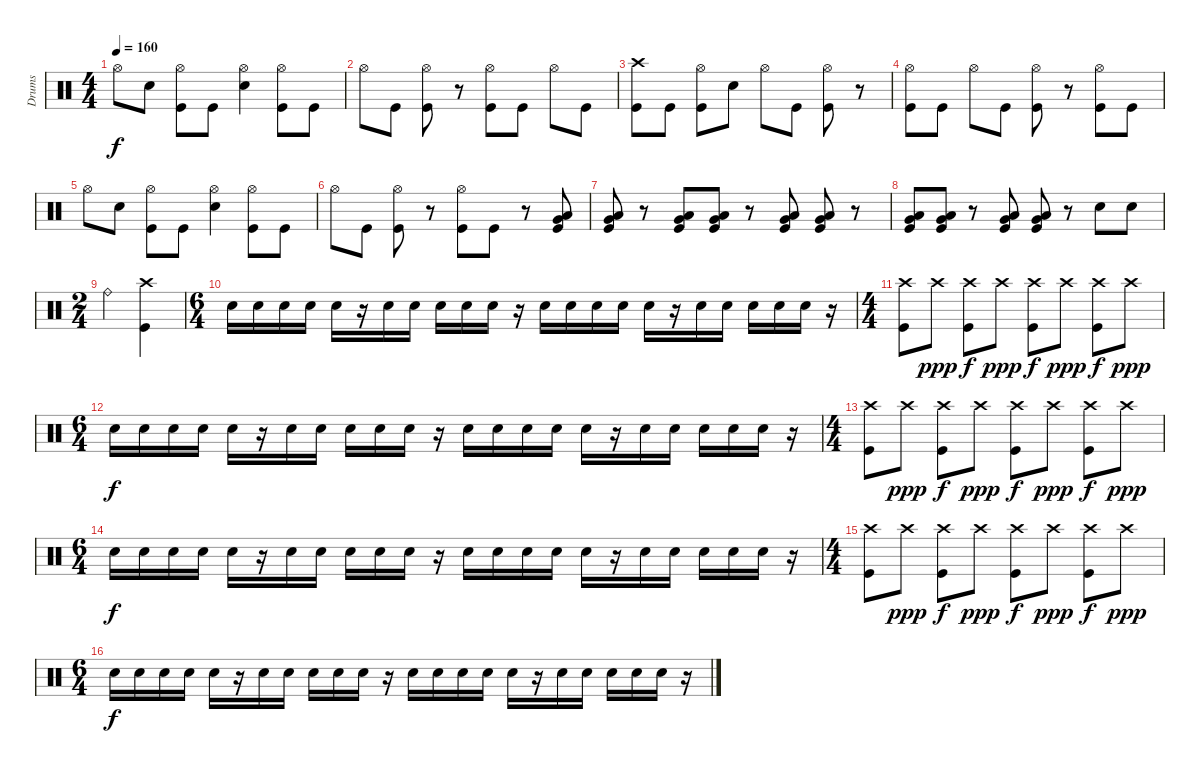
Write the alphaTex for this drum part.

\track ("Drums" "Drums") {instrument percussion}
\staff {score}
\articulation defaults
\ts (4 4)
\tempo 160
\clef neutral
\ks c "Hi-Hat (open)".8{dy f} "Electric Snare (hit)".8
("Hi-Hat (open)" "Kick (hit)").8 "Kick (hit)".8 ("Hi-Hat (open)" "Electric Snare (hit)").4 ("Hi-Hat (open)" "Kick (hit)").8 "Kick (hit)".8 |
"Hi-Hat (open)".8 "Kick (hit)".8 ("Hi-Hat (open)" "Kick (hit)").8 r.8 ("Hi-Hat (open)" "Kick (hit)").8 "Kick (hit)".8 "Hi-Hat (open)".8 "Kick (hit)".8 |
("Crash high (hit)" "Kick (hit)").8 "Kick (hit)".8 ("Hi-Hat (open)" "Kick (hit)").8 "Electric Snare (hit)".8 "Hi-Hat (open)".8 "Kick (hit)".8 ("Hi-Hat (open)" "Kick (hit)").8 r.8 |
("Hi-Hat (open)" "Kick (hit)").8 "Kick (hit)".8 "Hi-Hat (open)".8 "Kick (hit)".8 ("Hi-Hat (open)" "Kick (hit)").8 r.8 ("Hi-Hat (open)" "Kick (hit)").8 "Kick (hit)".8 |
"Hi-Hat (open)".8 "Electric Snare (hit)".8 ("Hi-Hat (open)" "Kick (hit)").8 "Kick (hit)".8 ("Hi-Hat (open)" "Electric Snare (hit)").4 ("Hi-Hat (open)" "Kick (hit)").8 "Kick (hit)".8 |
"Hi-Hat (open)".8 "Kick (hit)".8 ("Hi-Hat (open)" "Kick (hit)").8 r.8 ("Hi-Hat (open)" "Kick (hit)").8 "Kick (hit)".8 r.8 ("Low Floor Tom (hit)" "Very Low Tom (hit)" "Kick (hit)").8 |
("Low Floor Tom (hit)" "Very Low Tom (hit)" "Kick (hit)").8 r.8 ("Low Floor Tom (hit)" "Very Low Tom (hit)" "Kick (hit)").8 ("Low Floor Tom (hit)" "Very Low Tom (hit)" "Kick (hit)").8 r.8 ("Low Floor Tom (hit)" "Very Low Tom (hit)" "Kick (hit)").8 ("Low Floor Tom (hit)" "Very Low Tom (hit)" "Kick (hit)").8 r.8 |
("Low Floor Tom (hit)" "Very Low Tom (hit)" "Kick (hit)").8 ("Low Floor Tom (hit)" "Very Low Tom (hit)" "Kick (hit)").8 r.8 ("Low Floor Tom (hit)" "Very Low Tom (hit)" "Kick (hit)").8 ("Low Floor Tom (hit)" "Very Low Tom (hit)" "Kick (hit)").8 r.8 "Electric Snare (hit)".8 "Electric Snare (hit)".8 |
\ts (2 4)
"Ride (bell)".4 ("Crash high (hit)" "Kick (hit)").4 |
\ts (6 4)
"Electric Snare (hit)".16 "Electric Snare (hit)".16 "Electric Snare (hit)".16 "Electric Snare (hit)".16 "Electric Snare (hit)".16 r.16 "Electric Snare (hit)".16 "Electric Snare (hit)".16 "Electric Snare (hit)".16 "Electric Snare (hit)".16 "Electric Snare (hit)".16 r.16 "Electric Snare (hit)".16 "Electric Snare (hit)".16 "Electric Snare (hit)".16 "Electric Snare (hit)".16 "Electric Snare (hit)".16 r.16 "Electric Snare (hit)".16 "Electric Snare (hit)".16 "Electric Snare (hit)".16 "Electric Snare (hit)".16 "Electric Snare (hit)".16 r.16 |
\ts (4 4)
("Crash high (hit)" "Kick (hit)").8 "Crash high (hit)".8{dy ppp} ("Crash high (hit)" "Kick (hit)").8{dy f} "Crash high (hit)".8{dy ppp} ("Crash high (hit)" "Kick (hit)").8{dy f} "Crash high (hit)".8{dy ppp} ("Crash high (hit)" "Kick (hit)").8{dy f} "Crash high (hit)".8{dy ppp} |
\ts (6 4)
"Electric Snare (hit)".16{dy f} "Electric Snare (hit)".16 "Electric Snare (hit)".16 "Electric Snare (hit)".16 "Electric Snare (hit)".16 r.16 "Electric Snare (hit)".16 "Electric Snare (hit)".16 "Electric Snare (hit)".16 "Electric Snare (hit)".16 "Electric Snare (hit)".16 r.16 "Electric Snare (hit)".16 "Electric Snare (hit)".16 "Electric Snare (hit)".16 "Electric Snare (hit)".16 "Electric Snare (hit)".16 r.16 "Electric Snare (hit)".16 "Electric Snare (hit)".16 "Electric Snare (hit)".16 "Electric Snare (hit)".16 "Electric Snare (hit)".16 r.16 |
\ts (4 4)
("Crash high (hit)" "Kick (hit)").8 "Crash high (hit)".8{dy ppp} ("Crash high (hit)" "Kick (hit)").8{dy f} "Crash high (hit)".8{dy ppp} ("Crash high (hit)" "Kick (hit)").8{dy f} "Crash high (hit)".8{dy ppp} ("Crash high (hit)" "Kick (hit)").8{dy f} "Crash high (hit)".8{dy ppp} |
\ts (6 4)
"Electric Snare (hit)".16{dy f} "Electric Snare (hit)".16 "Electric Snare (hit)".16 "Electric Snare (hit)".16 "Electric Snare (hit)".16 r.16 "Electric Snare (hit)".16 "Electric Snare (hit)".16 "Electric Snare (hit)".16 "Electric Snare (hit)".16 "Electric Snare (hit)".16 r.16 "Electric Snare (hit)".16 "Electric Snare (hit)".16 "Electric Snare (hit)".16 "Electric Snare (hit)".16 "Electric Snare (hit)".16 r.16 "Electric Snare (hit)".16 "Electric Snare (hit)".16 "Electric Snare (hit)".16 "Electric Snare (hit)".16 "Electric Snare (hit)".16 r.16 |
\ts (4 4)
("Crash high (hit)" "Kick (hit)").8 "Crash high (hit)".8{dy ppp} ("Crash high (hit)" "Kick (hit)").8{dy f} "Crash high (hit)".8{dy ppp} ("Crash high (hit)" "Kick (hit)").8{dy f} "Crash high (hit)".8{dy ppp} ("Crash high (hit)" "Kick (hit)").8{dy f} "Crash high (hit)".8{dy ppp} |
\ts (6 4)
"Electric Snare (hit)".16{dy f} "Electric Snare (hit)".16 "Electric Snare (hit)".16 "Electric Snare (hit)".16 "Electric Snare (hit)".16 r.16 "Electric Snare (hit)".16 "Electric Snare (hit)".16 "Electric Snare (hit)".16 "Electric Snare (hit)".16 "Electric Snare (hit)".16 r.16 "Electric Snare (hit)".16 "Electric Snare (hit)".16 "Electric Snare (hit)".16 "Electric Snare (hit)".16 "Electric Snare (hit)".16 r.16 "Electric Snare (hit)".16 "Electric Snare (hit)".16 "Electric Snare (hit)".16 "Electric Snare (hit)".16 "Electric Snare (hit)".16 r.16
